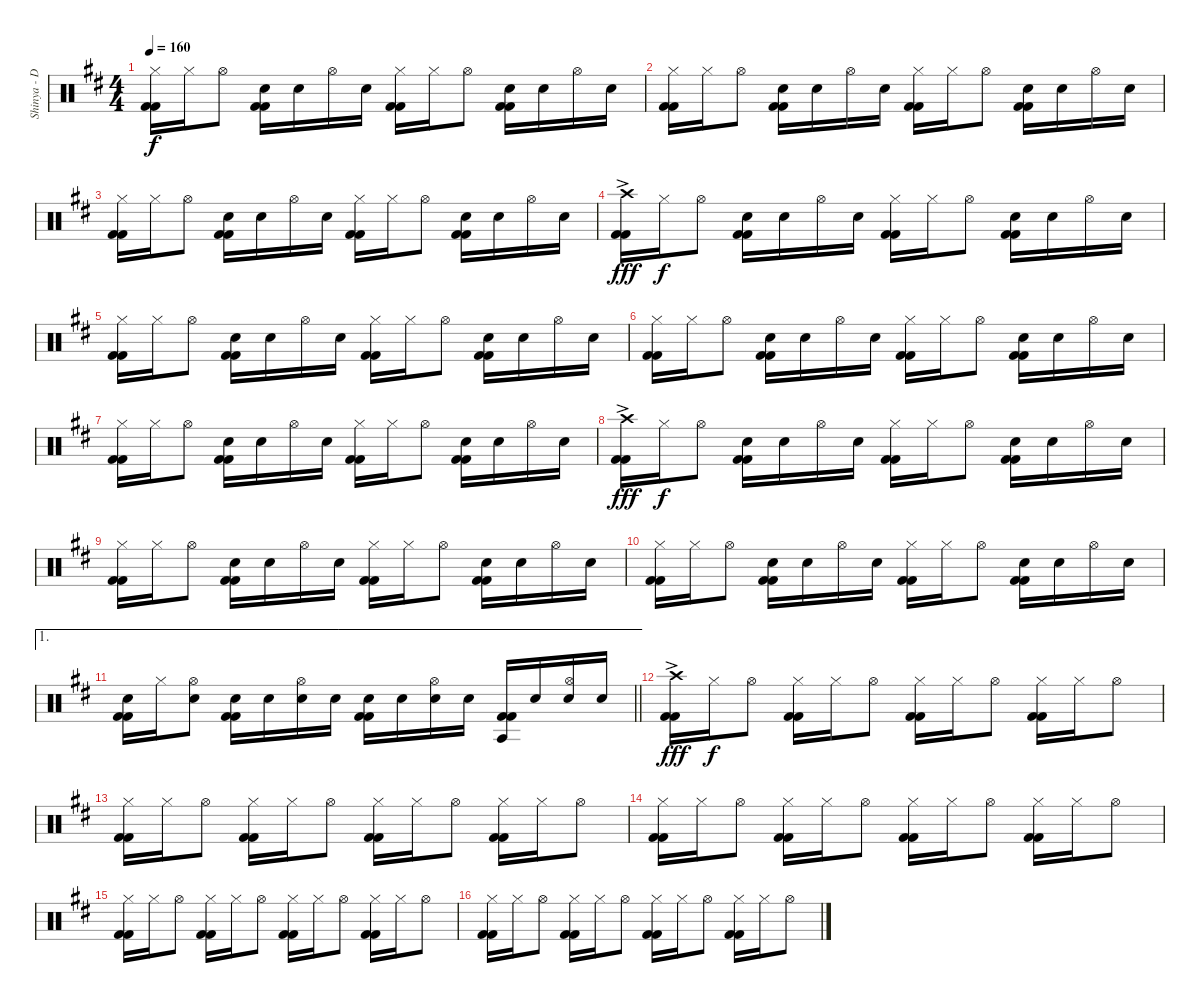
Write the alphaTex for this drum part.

\track ("Shinya - Drums" "Shinya - D") {instrument percussion}
\staff {score}
\articulation defaults
\ts (4 4)
\tempo 160
\clef neutral
\ks d
("Hi-Hat (closed)" "Kick (hit) 2" "Kick (hit) 2").16{dy f} "Hi-Hat (closed)".16 "Hi-Hat (open)".8 ("Snare (hit) 2" "Kick (hit) 2" "Kick (hit) 2").16 "Snare (hit) 2".16 "Hi-Hat (open)".16 "Snare (hit) 2".16 ("Hi-Hat (closed)" "Kick (hit) 2" "Kick (hit) 2").16 "Hi-Hat (closed)".16 "Hi-Hat (open)".8 ("Snare (hit) 2" "Kick (hit) 2" "Kick (hit) 2").16 "Snare (hit) 2".16 "Hi-Hat (open)".16 "Snare (hit) 2".16 |
("Hi-Hat (closed)" "Kick (hit) 2" "Kick (hit) 2").16 "Hi-Hat (closed)".16 "Hi-Hat (open)".8 ("Snare (hit) 2" "Kick (hit) 2" "Kick (hit) 2").16 "Snare (hit) 2".16 "Hi-Hat (open)".16 "Snare (hit) 2".16 ("Hi-Hat (closed)" "Kick (hit) 2" "Kick (hit) 2").16 "Hi-Hat (closed)".16 "Hi-Hat (open)".8 ("Snare (hit) 2" "Kick (hit) 2" "Kick (hit) 2").16 "Snare (hit) 2".16 "Hi-Hat (open)".16 "Snare (hit) 2".16 |
("Hi-Hat (closed)" "Kick (hit) 2" "Kick (hit) 2").16 "Hi-Hat (closed)".16 "Hi-Hat (open)".8 ("Snare (hit) 2" "Kick (hit) 2" "Kick (hit) 2").16 "Snare (hit) 2".16 "Hi-Hat (open)".16 "Snare (hit) 2".16 ("Hi-Hat (closed)" "Kick (hit) 2" "Kick (hit) 2").16 "Hi-Hat (closed)".16 "Hi-Hat (open)".8 ("Snare (hit) 2" "Kick (hit) 2" "Kick (hit) 2").16 "Snare (hit) 2".16 "Hi-Hat (open)".16 "Snare (hit) 2".16 |
("Crash high (hit)"{ac} "Kick (hit) 2" "Kick (hit) 2").16{dy fff} "Hi-Hat (closed)".16{dy f} "Hi-Hat (open)".8 ("Snare (hit) 2" "Kick (hit) 2" "Kick (hit) 2").16 "Snare (hit) 2".16 "Hi-Hat (open)".16 "Snare (hit) 2".16 ("Hi-Hat (closed)" "Kick (hit) 2" "Kick (hit) 2").16 "Hi-Hat (closed)".16 "Hi-Hat (open)".8 ("Snare (hit) 2" "Kick (hit) 2" "Kick (hit) 2").16 "Snare (hit) 2".16 "Hi-Hat (open)".16 "Snare (hit) 2".16 |
("Hi-Hat (closed)" "Kick (hit) 2" "Kick (hit) 2").16 "Hi-Hat (closed)".16 "Hi-Hat (open)".8 ("Snare (hit) 2" "Kick (hit) 2" "Kick (hit) 2").16 "Snare (hit) 2".16 "Hi-Hat (open)".16 "Snare (hit) 2".16 ("Hi-Hat (closed)" "Kick (hit) 2" "Kick (hit) 2").16 "Hi-Hat (closed)".16 "Hi-Hat (open)".8 ("Snare (hit) 2" "Kick (hit) 2" "Kick (hit) 2").16 "Snare (hit) 2".16 "Hi-Hat (open)".16 "Snare (hit) 2".16 |
("Hi-Hat (closed)" "Kick (hit) 2" "Kick (hit) 2").16 "Hi-Hat (closed)".16 "Hi-Hat (open)".8 ("Snare (hit) 2" "Kick (hit) 2" "Kick (hit) 2").16 "Snare (hit) 2".16 "Hi-Hat (open)".16 "Snare (hit) 2".16 ("Hi-Hat (closed)" "Kick (hit) 2" "Kick (hit) 2").16 "Hi-Hat (closed)".16 "Hi-Hat (open)".8 ("Snare (hit) 2" "Kick (hit) 2" "Kick (hit) 2").16 "Snare (hit) 2".16 "Hi-Hat (open)".16 "Snare (hit) 2".16 |
("Hi-Hat (closed)" "Kick (hit) 2" "Kick (hit) 2").16 "Hi-Hat (closed)".16 "Hi-Hat (open)".8 ("Snare (hit) 2" "Kick (hit) 2" "Kick (hit) 2").16 "Snare (hit) 2".16 "Hi-Hat (open)".16 "Snare (hit) 2".16 ("Hi-Hat (closed)" "Kick (hit) 2" "Kick (hit) 2").16 "Hi-Hat (closed)".16 "Hi-Hat (open)".8 ("Snare (hit) 2" "Kick (hit) 2" "Kick (hit) 2").16 "Snare (hit) 2".16 "Hi-Hat (open)".16 "Snare (hit) 2".16 |
("Crash high (hit)"{ac} "Kick (hit) 2" "Kick (hit) 2").16{dy fff} "Hi-Hat (closed)".16{dy f} "Hi-Hat (open)".8 ("Snare (hit) 2" "Kick (hit) 2" "Kick (hit) 2").16 "Snare (hit) 2".16 "Hi-Hat (open)".16 "Snare (hit) 2".16 ("Hi-Hat (closed)" "Kick (hit) 2" "Kick (hit) 2").16 "Hi-Hat (closed)".16 "Hi-Hat (open)".8 ("Snare (hit) 2" "Kick (hit) 2" "Kick (hit) 2").16 "Snare (hit) 2".16 "Hi-Hat (open)".16 "Snare (hit) 2".16 |
("Hi-Hat (closed)" "Kick (hit) 2" "Kick (hit) 2").16 "Hi-Hat (closed)".16 "Hi-Hat (open)".8 ("Snare (hit) 2" "Kick (hit) 2" "Kick (hit) 2").16 "Snare (hit) 2".16 "Hi-Hat (open)".16 "Snare (hit) 2".16 ("Hi-Hat (closed)" "Kick (hit) 2" "Kick (hit) 2").16 "Hi-Hat (closed)".16 "Hi-Hat (open)".8 ("Snare (hit) 2" "Kick (hit) 2" "Kick (hit) 2").16 "Snare (hit) 2".16 "Hi-Hat (open)".16 "Snare (hit) 2".16 |
("Hi-Hat (closed)" "Kick (hit) 2" "Kick (hit) 2").16 "Hi-Hat (closed)".16 "Hi-Hat (open)".8 ("Snare (hit) 2" "Kick (hit) 2" "Kick (hit) 2").16 "Snare (hit) 2".16 "Hi-Hat (open)".16 "Snare (hit) 2".16 ("Hi-Hat (closed)" "Kick (hit) 2" "Kick (hit) 2").16 "Hi-Hat (closed)".16 "Hi-Hat (open)".8 ("Snare (hit) 2" "Kick (hit) 2" "Kick (hit) 2").16 "Snare (hit) 2".16 "Hi-Hat (open)".16 "Snare (hit) 2".16 |
\ae 1
\barLineRight lightlight
("Snare (hit) 2" "Kick (hit) 2" "Kick (hit) 2").16 "Hi-Hat (closed)".16 ("Hi-Hat (open)" "Snare (hit) 2").8 ("Snare (hit) 2" "Kick (hit) 2" "Kick (hit) 2").16 "Snare (hit) 2".16 ("Hi-Hat (open)" "Snare (hit) 2").16 "Snare (hit) 2".16 ("Snare (hit) 2" "Kick (hit) 2" "Kick (hit) 2").16 "Snare (hit) 2".16 ("Hi-Hat (open)" "Snare (hit) 2").16 "Snare (hit) 2".16 ("Agogo tow (hit)" "Kick (hit) 2" "Kick (hit) 2").16 "Snare (hit) 2".16 ("Hi-Hat (open)" "Snare (hit) 2").16 "Snare (hit) 2".16 |
("Crash high (hit)"{ac} "Kick (hit) 2" "Kick (hit) 2").16{dy fff} "Hi-Hat (closed)".16{dy f} "Hi-Hat (open)".8 ("Hi-Hat (closed)" "Kick (hit) 2" "Kick (hit) 2").16 "Hi-Hat (closed)".16 "Hi-Hat (open)".8 ("Hi-Hat (closed)" "Kick (hit) 2" "Kick (hit) 2").16 "Hi-Hat (closed)".16 "Hi-Hat (open)".8 ("Hi-Hat (closed)" "Kick (hit) 2" "Kick (hit) 2").16 "Hi-Hat (closed)".16 "Hi-Hat (open)".8 |
("Hi-Hat (closed)" "Kick (hit) 2" "Kick (hit) 2").16 "Hi-Hat (closed)".16 "Hi-Hat (open)".8 ("Hi-Hat (closed)" "Kick (hit) 2" "Kick (hit) 2").16 "Hi-Hat (closed)".16 "Hi-Hat (open)".8 ("Hi-Hat (closed)" "Kick (hit) 2" "Kick (hit) 2").16 "Hi-Hat (closed)".16 "Hi-Hat (open)".8 ("Hi-Hat (closed)" "Kick (hit) 2" "Kick (hit) 2").16 "Hi-Hat (closed)".16 "Hi-Hat (open)".8 |
("Hi-Hat (closed)" "Kick (hit) 2" "Kick (hit) 2").16 "Hi-Hat (closed)".16 "Hi-Hat (open)".8 ("Hi-Hat (closed)" "Kick (hit) 2" "Kick (hit) 2").16 "Hi-Hat (closed)".16 "Hi-Hat (open)".8 ("Hi-Hat (closed)" "Kick (hit) 2" "Kick (hit) 2").16 "Hi-Hat (closed)".16 "Hi-Hat (open)".8 ("Hi-Hat (closed)" "Kick (hit) 2" "Kick (hit) 2").16 "Hi-Hat (closed)".16 "Hi-Hat (open)".8 |
("Hi-Hat (closed)" "Kick (hit) 2" "Kick (hit) 2").16 "Hi-Hat (closed)".16 "Hi-Hat (open)".8 ("Hi-Hat (closed)" "Kick (hit) 2" "Kick (hit) 2").16 "Hi-Hat (closed)".16 "Hi-Hat (open)".8 ("Hi-Hat (closed)" "Kick (hit) 2" "Kick (hit) 2").16 "Hi-Hat (closed)".16 "Hi-Hat (open)".8 ("Hi-Hat (closed)" "Kick (hit) 2" "Kick (hit) 2").16 "Hi-Hat (closed)".16 "Hi-Hat (open)".8 |
("Hi-Hat (closed)" "Kick (hit) 2" "Kick (hit) 2").16 "Hi-Hat (closed)".16 "Hi-Hat (open)".8 ("Hi-Hat (closed)" "Kick (hit) 2" "Kick (hit) 2").16 "Hi-Hat (closed)".16 "Hi-Hat (open)".8 ("Hi-Hat (closed)" "Kick (hit) 2" "Kick (hit) 2").16 "Hi-Hat (closed)".16 "Hi-Hat (open)".8 ("Hi-Hat (closed)" "Kick (hit) 2" "Kick (hit) 2").16 "Hi-Hat (closed)".16 "Hi-Hat (open)".8
